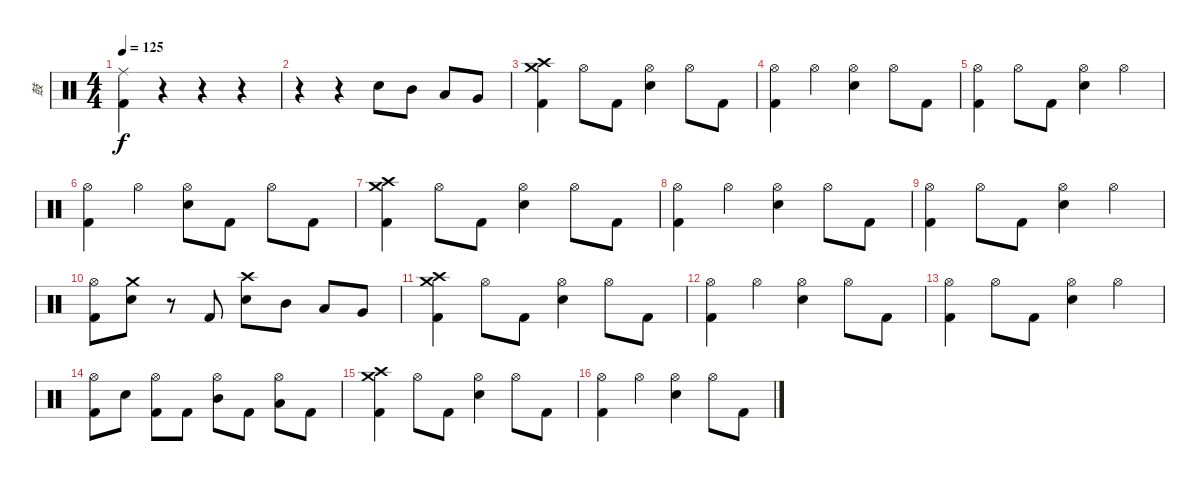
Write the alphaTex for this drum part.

\track ("鼓" "鼓") {instrument percussion}
\staff {score}
\articulation defaults
\ts (4 4)
\tempo 125
\clef neutral
\ks c
("Ride (middle)" "Kick (hit) 2").4{dy f} r.4 r.4 r.4 |
r.4 r.4 "Snare (hit) 2".8 "Mid Tom (hit)".8 "Low Tom (hit)".8 "Very Low Tom (hit)".8 |
("Crash medium (hit)" "Crash high (hit)" "Kick (hit) 2").4 "Hi-Hat (open)".8 "Kick (hit) 2".8 ("Hi-Hat (open)" "Snare (hit) 2").4 "Hi-Hat (open)".8 "Kick (hit) 2".8 |
("Hi-Hat (open)" "Kick (hit) 2").4 "Hi-Hat (open)".4 ("Snare (hit) 2" "Hi-Hat (open)").4 "Hi-Hat (open)".8 "Kick (hit) 2".8 |
("Hi-Hat (open)" "Kick (hit) 2").4 "Hi-Hat (open)".8 "Kick (hit) 2".8 ("Hi-Hat (open)" "Snare (hit) 2").4 "Hi-Hat (open)".4 |
("Hi-Hat (open)" "Kick (hit) 2").4 "Hi-Hat (open)".4 ("Snare (hit) 2" "Hi-Hat (open)").8 "Kick (hit) 2".8 "Hi-Hat (open)".8 "Kick (hit) 2".8 |
("Crash medium (hit)" "Crash high (hit)" "Kick (hit) 2").4 "Hi-Hat (open)".8 "Kick (hit) 2".8 ("Hi-Hat (open)" "Snare (hit) 2").4 "Hi-Hat (open)".8 "Kick (hit) 2".8 |
("Hi-Hat (open)" "Kick (hit) 2").4 "Hi-Hat (open)".4 ("Snare (hit) 2" "Hi-Hat (open)").4 "Hi-Hat (open)".8 "Kick (hit) 2".8 |
("Hi-Hat (open)" "Kick (hit) 2").4 "Hi-Hat (open)".8 "Kick (hit) 2".8 ("Hi-Hat (open)" "Snare (hit) 2").4 "Hi-Hat (open)".4 |
("Hi-Hat (open)" "Kick (hit) 2").8 ("Snare (hit) 2" "Crash medium (hit)").8 r.8 "Kick (hit) 2".8 ("Snare (hit) 2" "Crash high (hit)").8 "Mid Tom (hit)".8 "Low Tom (hit)".8 "Very Low Tom (hit)".8 |
("Crash medium (hit)" "Crash high (hit)" "Kick (hit) 2").4 "Hi-Hat (open)".8 "Kick (hit) 2".8 ("Hi-Hat (open)" "Snare (hit) 2").4 "Hi-Hat (open)".8 "Kick (hit) 2".8 |
("Hi-Hat (open)" "Kick (hit) 2").4 "Hi-Hat (open)".4 ("Snare (hit) 2" "Hi-Hat (open)").4 "Hi-Hat (open)".8 "Kick (hit) 2".8 |
("Hi-Hat (open)" "Kick (hit) 2").4 "Hi-Hat (open)".8 "Kick (hit) 2".8 ("Hi-Hat (open)" "Snare (hit) 2").4 "Hi-Hat (open)".4 |
("Hi-Hat (open)" "Kick (hit) 2").8 "Snare (hit) 2".8 ("Hi-Hat (open)" "Kick (hit) 2").8 "Kick (hit) 2".8 ("Mid Tom (hit)" "Hi-Hat (open)").8 "Kick (hit) 2".8 ("Low Tom (hit)" "Hi-Hat (open)").8 "Kick (hit) 2".8 |
("Crash medium (hit)" "Crash high (hit)" "Kick (hit) 2").4 "Hi-Hat (open)".8 "Kick (hit) 2".8 ("Hi-Hat (open)" "Snare (hit) 2").4 "Hi-Hat (open)".8 "Kick (hit) 2".8 |
("Hi-Hat (open)" "Kick (hit) 2").4 "Hi-Hat (open)".4 ("Snare (hit) 2" "Hi-Hat (open)").4 "Hi-Hat (open)".8 "Kick (hit) 2".8
